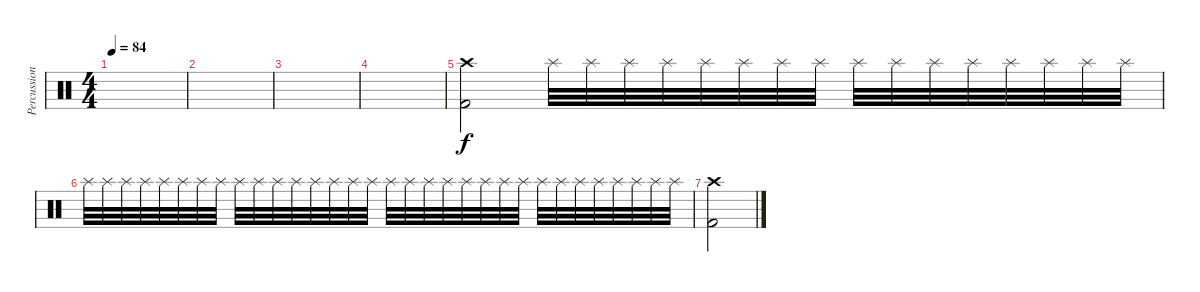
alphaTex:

\track ("Percussion" "Percussion") {instrument percussion}
\staff {score}
\articulation defaults
\ts (4 4)
\tempo 84
\clef neutral
\ks c
|
|
|
|
("Kick (hit) 2" "Crash high (hit)").2 "Splash (hit)".32{volume 4} "Splash (hit)".32{volume 13} "Splash (hit)".32 "Splash (hit)".32 "Splash (hit)".32 "Splash (hit)".32 "Splash (hit)".32 "Splash (hit)".32 "Splash (hit)".32 "Splash (hit)".32 "Splash (hit)".32 "Splash (hit)".32 "Splash (hit)".32 "Splash (hit)".32 "Splash (hit)".32 "Splash (hit)".32 |
"Splash (hit)".32 "Splash (hit)".32 "Splash (hit)".32 "Splash (hit)".32 "Splash (hit)".32 "Splash (hit)".32 "Splash (hit)".32 "Splash (hit)".32 "Splash (hit)".32 "Splash (hit)".32 "Splash (hit)".32 "Splash (hit)".32 "Splash (hit)".32 "Splash (hit)".32 "Splash (hit)".32 "Splash (hit)".32 "Splash (hit)".32 "Splash (hit)".32 "Splash (hit)".32 "Splash (hit)".32 "Splash (hit)".32 "Splash (hit)".32 "Splash (hit)".32 "Splash (hit)".32 "Splash (hit)".32 "Splash (hit)".32 "Splash (hit)".32 "Splash (hit)".32 "Splash (hit)".32 "Splash (hit)".32 "Splash (hit)".32 "Splash (hit)".32 |
("Crash high (hit)" "Kick (hit) 2").2
